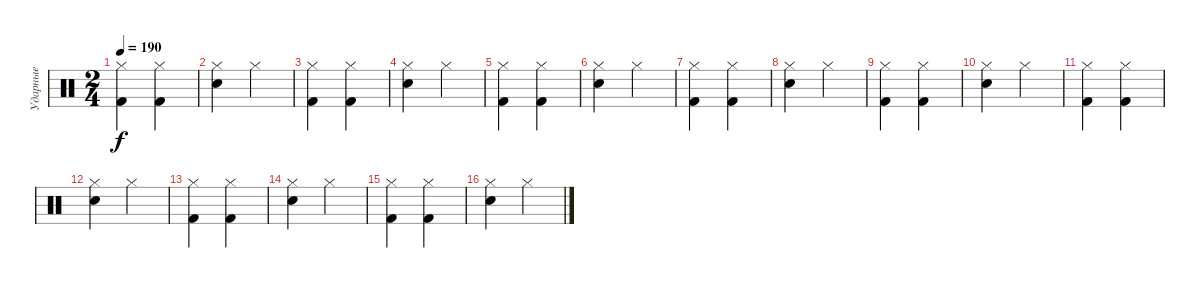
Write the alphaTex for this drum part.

\track ("Ударные" "Ударные") {instrument percussion}
\staff {score}
\articulation defaults
\ts (2 4)
\tempo 190
\clef neutral
\ks c
("Hi-Hat (closed)" "Kick (hit) 2").4{dy f} ("Hi-Hat (closed)" "Kick (hit) 2").4 |
("Hi-Hat (closed)" "Snare (hit) 2").4 "Hi-Hat (closed)".4 |
("Hi-Hat (closed)" "Kick (hit) 2").4 ("Hi-Hat (closed)" "Kick (hit) 2").4 |
("Hi-Hat (closed)" "Snare (hit) 2").4 "Hi-Hat (closed)".4 |
("Hi-Hat (closed)" "Kick (hit) 2").4 ("Hi-Hat (closed)" "Kick (hit) 2").4 |
("Hi-Hat (closed)" "Snare (hit) 2").4 "Hi-Hat (closed)".4 |
("Hi-Hat (closed)" "Kick (hit) 2").4 ("Hi-Hat (closed)" "Kick (hit) 2").4 |
("Hi-Hat (closed)" "Snare (hit) 2").4 "Hi-Hat (closed)".4 |
("Hi-Hat (closed)" "Kick (hit) 2").4 ("Hi-Hat (closed)" "Kick (hit) 2").4 |
("Hi-Hat (closed)" "Snare (hit) 2").4 "Hi-Hat (closed)".4 |
("Hi-Hat (closed)" "Kick (hit) 2").4 ("Hi-Hat (closed)" "Kick (hit) 2").4 |
("Hi-Hat (closed)" "Snare (hit) 2").4 "Hi-Hat (closed)".4 |
("Hi-Hat (closed)" "Kick (hit) 2").4 ("Hi-Hat (closed)" "Kick (hit) 2").4 |
("Hi-Hat (closed)" "Snare (hit) 2").4 "Hi-Hat (closed)".4 |
("Hi-Hat (closed)" "Kick (hit) 2").4 ("Hi-Hat (closed)" "Kick (hit) 2").4 |
("Hi-Hat (closed)" "Snare (hit) 2").4 "Hi-Hat (closed)".4
